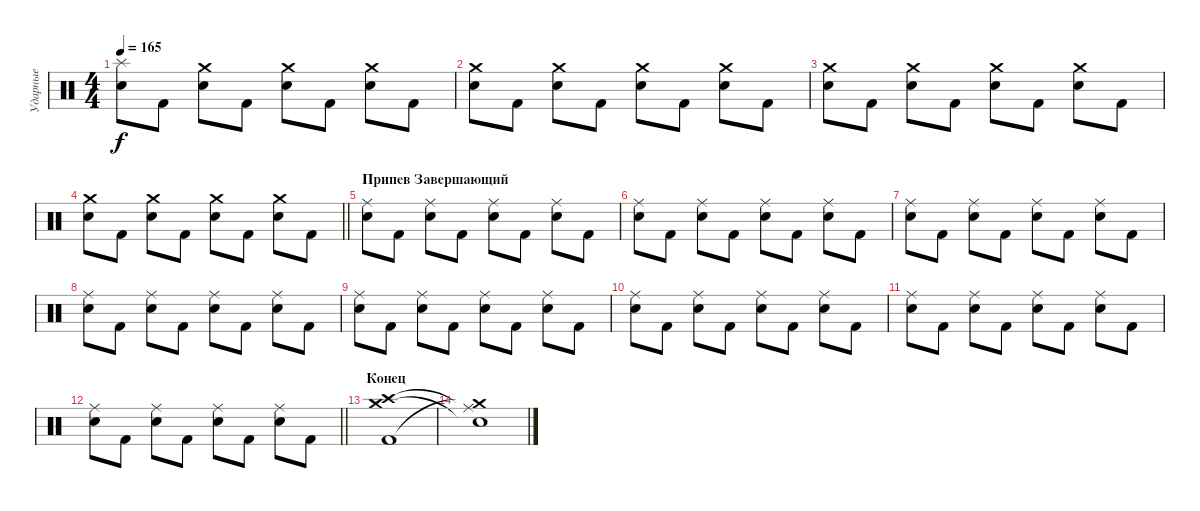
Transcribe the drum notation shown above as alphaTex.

\track ("Ударные" "Ударные") {instrument percussion}
\staff {score}
\articulation defaults
\ts (4 4)
\tempo 165
\clef neutral
\ks c
("Splash (hit)" "Snare (hit) 2").8{dy f} "Kick (hit) 2".8 ("Crash medium (hit)" "Snare (hit) 2").8 "Kick (hit) 2".8 ("Crash medium (hit)" "Snare (hit) 2").8 "Kick (hit) 2".8 ("Crash medium (hit)" "Snare (hit) 2").8 "Kick (hit) 2".8 |
("Crash medium (hit)" "Snare (hit) 2").8 "Kick (hit) 2".8 ("Crash medium (hit)" "Snare (hit) 2").8 "Kick (hit) 2".8 ("Crash medium (hit)" "Snare (hit) 2").8 "Kick (hit) 2".8 ("Crash medium (hit)" "Snare (hit) 2").8 "Kick (hit) 2".8 |
("Crash medium (hit)" "Snare (hit) 2").8 "Kick (hit) 2".8 ("Crash medium (hit)" "Snare (hit) 2").8 "Kick (hit) 2".8 ("Crash medium (hit)" "Snare (hit) 2").8 "Kick (hit) 2".8 ("Crash medium (hit)" "Snare (hit) 2").8 "Kick (hit) 2".8 |
\barLineRight lightlight
("Crash medium (hit)" "Snare (hit) 2").8 "Kick (hit) 2".8 ("Crash medium (hit)" "Snare (hit) 2").8 "Kick (hit) 2".8 ("Crash medium (hit)" "Snare (hit) 2").8 "Kick (hit) 2".8 ("Crash medium (hit)" "Snare (hit) 2").8 "Kick (hit) 2".8 |
\section ("" "Припев Завершающий ")
("Ride (middle)" "Snare (hit) 2").8 "Kick (hit) 2".8 ("Ride (middle)" "Snare (hit) 2").8 "Kick (hit) 2".8 ("Ride (middle)" "Snare (hit) 2").8 "Kick (hit) 2".8 ("Ride (middle)" "Snare (hit) 2").8 "Kick (hit) 2".8 |
("Ride (middle)" "Snare (hit) 2").8 "Kick (hit) 2".8 ("Ride (middle)" "Snare (hit) 2").8 "Kick (hit) 2".8 ("Ride (middle)" "Snare (hit) 2").8 "Kick (hit) 2".8 ("Ride (middle)" "Snare (hit) 2").8 "Kick (hit) 2".8 |
("Ride (middle)" "Snare (hit) 2").8 "Kick (hit) 2".8 ("Ride (middle)" "Snare (hit) 2").8 "Kick (hit) 2".8 ("Ride (middle)" "Snare (hit) 2").8 "Kick (hit) 2".8 ("Ride (middle)" "Snare (hit) 2").8 "Kick (hit) 2".8 |
("Ride (middle)" "Snare (hit) 2").8 "Kick (hit) 2".8 ("Ride (middle)" "Snare (hit) 2").8 "Kick (hit) 2".8 ("Ride (middle)" "Snare (hit) 2").8 "Kick (hit) 2".8 ("Ride (middle)" "Snare (hit) 2").8 "Kick (hit) 2".8 |
("Ride (middle)" "Snare (hit) 2").8 "Kick (hit) 2".8 ("Ride (middle)" "Snare (hit) 2").8 "Kick (hit) 2".8 ("Ride (middle)" "Snare (hit) 2").8 "Kick (hit) 2".8 ("Ride (middle)" "Snare (hit) 2").8 "Kick (hit) 2".8 |
("Ride (middle)" "Snare (hit) 2").8 "Kick (hit) 2".8 ("Ride (middle)" "Snare (hit) 2").8 "Kick (hit) 2".8 ("Ride (middle)" "Snare (hit) 2").8 "Kick (hit) 2".8 ("Ride (middle)" "Snare (hit) 2").8 "Kick (hit) 2".8 |
("Ride (middle)" "Snare (hit) 2").8 "Kick (hit) 2".8 ("Ride (middle)" "Snare (hit) 2").8 "Kick (hit) 2".8 ("Ride (middle)" "Snare (hit) 2").8 "Kick (hit) 2".8 ("Ride (middle)" "Snare (hit) 2").8 "Kick (hit) 2".8 |
\barLineRight lightlight
("Ride (middle)" "Snare (hit) 2").8 "Kick (hit) 2".8 ("Ride (middle)" "Snare (hit) 2").8 "Kick (hit) 2".8 ("Ride (middle)" "Snare (hit) 2").8 "Kick (hit) 2".8 ("Ride (middle)" "Snare (hit) 2").8 "Kick (hit) 2".8 |
\section ("" "Конец")
("Crash high (hit)" "Crash medium (hit)" "Kick (hit) 2").1 |
("Ride (middle)"{t} "Electric Snare (hit)"{t} "Crash medium (hit)"{t}).1
